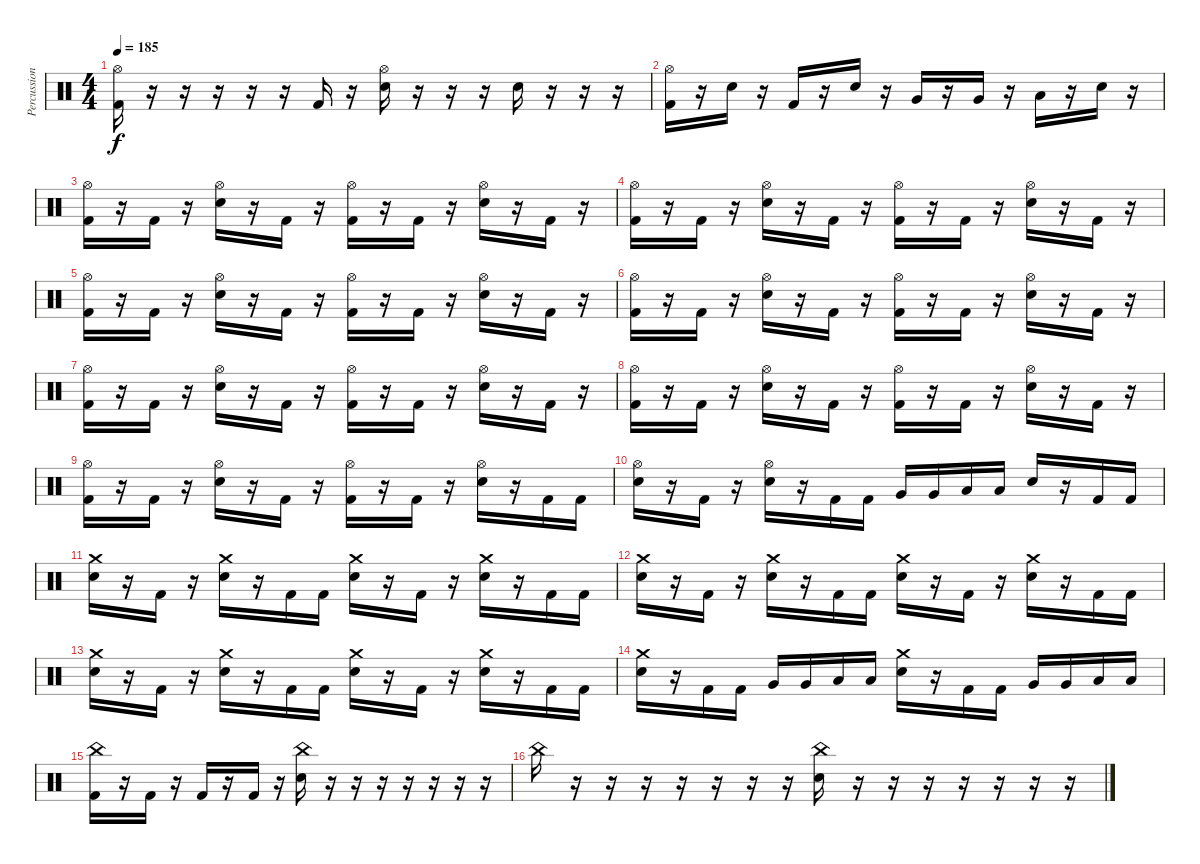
\track ("Percussion" "Percussion") {instrument percussion}
\staff {score}
\articulation defaults
\ts (4 4)
\tempo 185
\clef neutral
\ks c
("Hi-Hat (open)" "Kick (hit) 2").16{dy f} r.16 r.16 r.16 r.16 r.16 "Kick (hit) 2".16 r.16 ("Hi-Hat (open)" "Electric Snare (hit)").16 r.16 r.16 r.16 "Electric Snare (hit)".16 r.16 r.16 r.16 |
("Hi-Hat (open)" "Kick (hit) 2").16 r.16 "Electric Snare (hit)".16 r.16 "Kick (hit) 2".16 r.16 "Electric Snare (hit)".16 r.16 "Very Low Tom (hit)".16 r.16 "Very Low Tom (hit)".16 r.16 "Low Floor Tom (hit)".16 r.16 "Electric Snare (hit)".16 r.16 |
("Hi-Hat (open)" "Kick (hit) 2").16 r.16 "Kick (hit) 2".16 r.16 ("Hi-Hat (open)" "Electric Snare (hit)").16 r.16 "Kick (hit) 2".16 r.16 ("Hi-Hat (open)" "Kick (hit) 2").16 r.16 "Kick (hit) 2".16 r.16 ("Hi-Hat (open)" "Electric Snare (hit)").16 r.16 "Kick (hit) 2".16 r.16 |
("Hi-Hat (open)" "Kick (hit) 2").16 r.16 "Kick (hit) 2".16 r.16 ("Hi-Hat (open)" "Electric Snare (hit)").16 r.16 "Kick (hit) 2".16 r.16 ("Hi-Hat (open)" "Kick (hit) 2").16 r.16 "Kick (hit) 2".16 r.16 ("Hi-Hat (open)" "Electric Snare (hit)").16 r.16 "Kick (hit) 2".16 r.16 |
("Hi-Hat (open)" "Kick (hit) 2").16 r.16 "Kick (hit) 2".16 r.16 ("Hi-Hat (open)" "Electric Snare (hit)").16 r.16 "Kick (hit) 2".16 r.16 ("Hi-Hat (open)" "Kick (hit) 2").16 r.16 "Kick (hit) 2".16 r.16 ("Hi-Hat (open)" "Electric Snare (hit)").16 r.16 "Kick (hit) 2".16 r.16 |
("Hi-Hat (open)" "Kick (hit) 2").16 r.16 "Kick (hit) 2".16 r.16 ("Hi-Hat (open)" "Electric Snare (hit)").16 r.16 "Kick (hit) 2".16 r.16 ("Hi-Hat (open)" "Kick (hit) 2").16 r.16 "Kick (hit) 2".16 r.16 ("Hi-Hat (open)" "Electric Snare (hit)").16 r.16 "Kick (hit) 2".16 r.16 |
("Hi-Hat (open)" "Kick (hit) 2").16 r.16 "Kick (hit) 2".16 r.16 ("Hi-Hat (open)" "Electric Snare (hit)").16 r.16 "Kick (hit) 2".16 r.16 ("Hi-Hat (open)" "Kick (hit) 2").16 r.16 "Kick (hit) 2".16 r.16 ("Hi-Hat (open)" "Electric Snare (hit)").16 r.16 "Kick (hit) 2".16 r.16 |
("Hi-Hat (open)" "Kick (hit) 2").16 r.16 "Kick (hit) 2".16 r.16 ("Hi-Hat (open)" "Electric Snare (hit)").16 r.16 "Kick (hit) 2".16 r.16 ("Hi-Hat (open)" "Kick (hit) 2").16 r.16 "Kick (hit) 2".16 r.16 ("Hi-Hat (open)" "Electric Snare (hit)").16 r.16 "Kick (hit) 2".16 r.16 |
("Hi-Hat (open)" "Kick (hit) 2").16 r.16 "Kick (hit) 2".16 r.16 ("Hi-Hat (open)" "Electric Snare (hit)").16 r.16 "Kick (hit) 2".16 r.16 ("Hi-Hat (open)" "Kick (hit) 2").16 r.16 "Kick (hit) 2".16 r.16 ("Hi-Hat (open)" "Electric Snare (hit)").16 r.16 "Kick (hit) 2".16 "Kick (hit) 2".16 |
("Hi-Hat (open)" "Electric Snare (hit)").16 r.16 "Kick (hit) 2".16 r.16 ("Hi-Hat (open)" "Electric Snare (hit)").16 r.16 "Kick (hit) 2".16 "Kick (hit) 2".16 "Very Low Tom (hit)".16 "Very Low Tom (hit)".16 "Low Floor Tom (hit)".16 "Low Floor Tom (hit)".16 "Electric Snare (hit)".16 r.16 "Kick (hit) 2".16 "Kick (hit) 2".16 |
("Crash medium (hit)" "Electric Snare (hit)").16 r.16 "Kick (hit) 2".16 r.16 ("Crash medium (hit)" "Electric Snare (hit)").16 r.16 "Kick (hit) 2".16 "Kick (hit) 2".16 ("Crash medium (hit)" "Electric Snare (hit)").16 r.16 "Kick (hit) 2".16 r.16 ("Crash medium (hit)" "Electric Snare (hit)").16 r.16 "Kick (hit) 2".16 "Kick (hit) 2".16 |
("Crash medium (hit)" "Electric Snare (hit)").16 r.16 "Kick (hit) 2".16 r.16 ("Crash medium (hit)" "Electric Snare (hit)").16 r.16 "Kick (hit) 2".16 "Kick (hit) 2".16 ("Crash medium (hit)" "Electric Snare (hit)").16 r.16 "Kick (hit) 2".16 r.16 ("Crash medium (hit)" "Electric Snare (hit)").16 r.16 "Kick (hit) 2".16 "Kick (hit) 2".16 |
("Crash medium (hit)" "Electric Snare (hit)").16 r.16 "Kick (hit) 2".16 r.16 ("Crash medium (hit)" "Electric Snare (hit)").16 r.16 "Kick (hit) 2".16 "Kick (hit) 2".16 ("Crash medium (hit)" "Electric Snare (hit)").16 r.16 "Kick (hit) 2".16 r.16 ("Crash medium (hit)" "Electric Snare (hit)").16 r.16 "Kick (hit) 2".16 "Kick (hit) 2".16 |
("Crash medium (hit)" "Electric Snare (hit)").16 r.16 "Kick (hit) 2".16 "Kick (hit) 2".16 "Very Low Tom (hit)".16 "Very Low Tom (hit)".16 "Low Floor Tom (hit)".16 "Low Floor Tom (hit)".16 ("Crash medium (hit)" "Electric Snare (hit)").16 r.16 "Kick (hit) 2".16 "Kick (hit) 2".16 "Very Low Tom (hit)".16 "Very Low Tom (hit)".16 "Low Floor Tom (hit)".16 "Low Floor Tom (hit)".16 |
("China (hit)" "Kick (hit) 2").16 r.16 "Kick (hit) 2".16 r.16 "Kick (hit) 2".16 r.16 "Kick (hit) 2".16 r.16 ("China (hit)" "Electric Snare (hit)").16 r.16 r.16 r.16 r.16 r.16 r.16 r.16 |
"China (hit)".16 r.16 r.16 r.16 r.16 r.16 r.16 r.16 ("China (hit)" "Electric Snare (hit)").16 r.16 r.16 r.16 r.16 r.16 r.16 r.16
